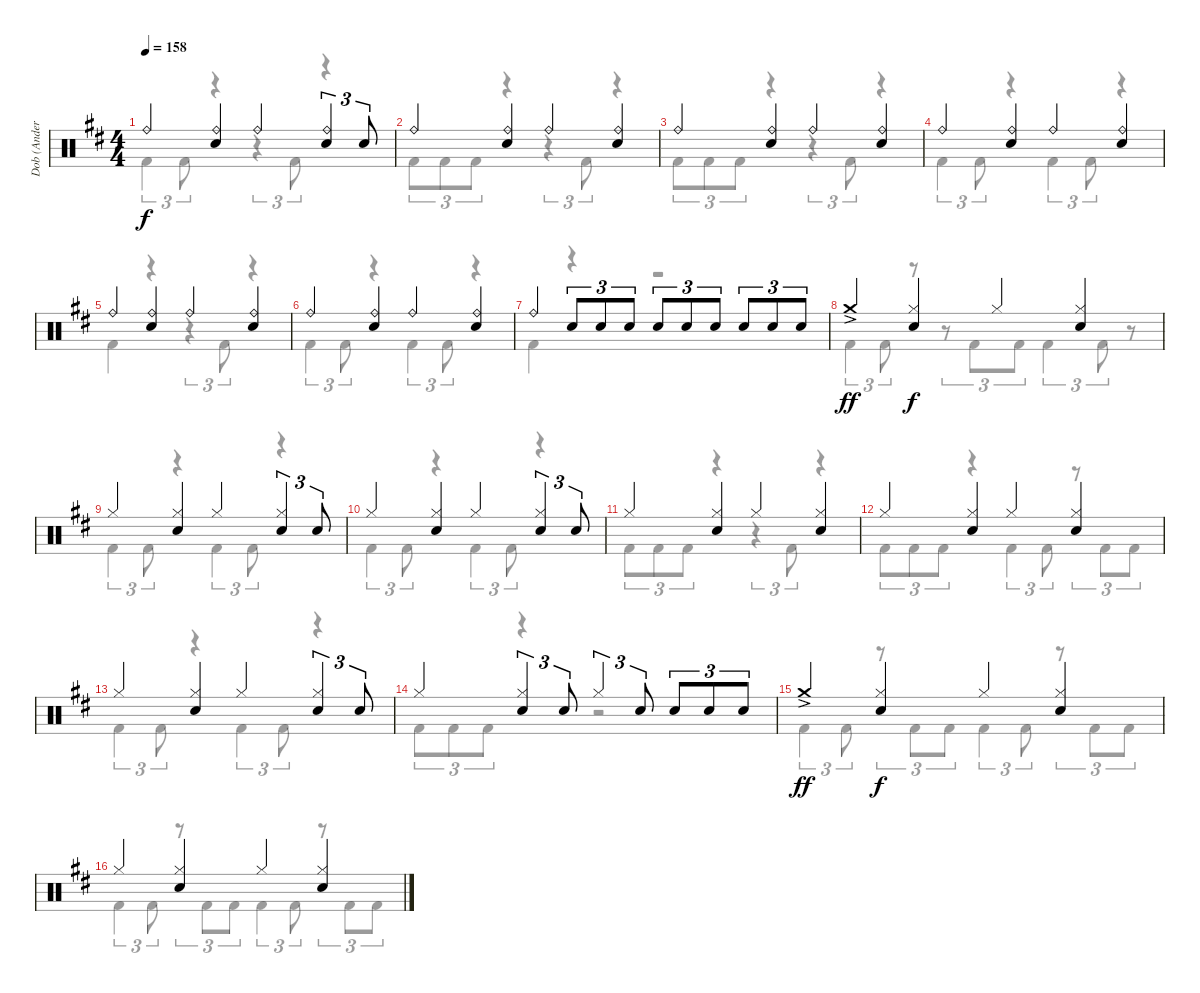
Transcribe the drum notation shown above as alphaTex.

\track ("Dob (Anders Johansson)" "Dob (Ander") {instrument percussion}
\staff {score}
\articulation defaults
\voice
\ts (4 4)
\tempo 158
\clef neutral
\ks d "Ride (bell)".4{dy f}
("Ride (bell)" "Electric Snare (hit)").4 "Ride (bell)".4 ("Ride (bell)" "Electric Snare (hit)").4{tu (3 2)} "Electric Snare (hit)".8{tu (3 2)} |
"Ride (bell)".4 ("Ride (bell)" "Electric Snare (hit)").4 "Ride (bell)".4 ("Ride (bell)" "Electric Snare (hit)").4 |
"Ride (bell)".4 ("Ride (bell)" "Electric Snare (hit)").4 "Ride (bell)".4 ("Ride (bell)" "Electric Snare (hit)").4 |
"Ride (bell)".4 ("Ride (bell)" "Electric Snare (hit)").4 "Ride (bell)".4 ("Ride (bell)" "Electric Snare (hit)").4 |
"Ride (bell)".4 ("Ride (bell)" "Electric Snare (hit)").4 "Ride (bell)".4 ("Ride (bell)" "Electric Snare (hit)").4 |
"Ride (bell)".4 ("Ride (bell)" "Electric Snare (hit)").4 "Ride (bell)".4 ("Ride (bell)" "Electric Snare (hit)").4 |
"Ride (bell)".4 "Electric Snare (hit)".8{tu (3 2)} "Electric Snare (hit)".8{tu (3 2)} "Electric Snare (hit)".8{tu (3 2)} "Electric Snare (hit)".8{tu (3 2)} "Electric Snare (hit)".8{tu (3 2)} "Electric Snare (hit)".8{tu (3 2)} "Electric Snare (hit)".8{tu (3 2)} "Electric Snare (hit)".8{tu (3 2)} "Electric Snare (hit)".8{tu (3 2)} |
"Crash medium (hit)"{ac}.4{dy ff} ("Hi-Hat (closed)" "Electric Snare (hit)").4{dy f} "Hi-Hat (closed)".4 ("Hi-Hat (closed)" "Electric Snare (hit)").4 |
"Hi-Hat (closed)".4 ("Hi-Hat (closed)" "Electric Snare (hit)").4 "Hi-Hat (closed)".4 ("Hi-Hat (closed)" "Electric Snare (hit)").4{tu (3 2)} "Electric Snare (hit)".8{tu (3 2)} |
"Hi-Hat (closed)".4 ("Hi-Hat (closed)" "Electric Snare (hit)").4 "Hi-Hat (closed)".4 ("Hi-Hat (closed)" "Electric Snare (hit)").4{tu (3 2)} "Electric Snare (hit)".8{tu (3 2)} |
"Hi-Hat (closed)".4 ("Hi-Hat (closed)" "Electric Snare (hit)").4 "Hi-Hat (closed)".4 ("Hi-Hat (closed)" "Electric Snare (hit)").4 |
"Hi-Hat (closed)".4 ("Hi-Hat (closed)" "Electric Snare (hit)").4 "Hi-Hat (closed)".4 ("Hi-Hat (closed)" "Electric Snare (hit)").4 |
"Hi-Hat (closed)".4 ("Hi-Hat (closed)" "Electric Snare (hit)").4 "Hi-Hat (closed)".4 ("Hi-Hat (closed)" "Electric Snare (hit)").4{tu (3 2)} "Electric Snare (hit)".8{tu (3 2)} |
"Hi-Hat (closed)".4 ("Hi-Hat (closed)" "Electric Snare (hit)").4{tu (3 2)} "Electric Snare (hit)".8{tu (3 2)} "Hi-Hat (closed)".4{tu (3 2)} "Electric Snare (hit)".8{tu (3 2)} "Electric Snare (hit)".8{tu (3 2)} "Electric Snare (hit)".8{tu (3 2)} "Electric Snare (hit)".8{tu (3 2)} |
"Crash medium (hit)"{ac}.4{dy ff} ("Hi-Hat (closed)" "Electric Snare (hit)").4{dy f} "Hi-Hat (closed)".4 ("Hi-Hat (closed)" "Electric Snare (hit)").4 |
"Hi-Hat (closed)".4 ("Hi-Hat (closed)" "Electric Snare (hit)").4 "Hi-Hat (closed)".4 ("Hi-Hat (closed)" "Electric Snare (hit)").4
\voice
\clef neutral
\ottava regular
\simile none
\ks d "Kick (hit) 2".4{tu (3 2) dy f} "Kick (hit) 2".8{tu (3 2)}
r.4 r.4{tu (3 2)} "Kick (hit) 2".8{tu (3 2)} r.4 |
"Kick (hit) 2".8{tu (3 2)} "Kick (hit) 2".8{tu (3 2)} "Kick (hit) 2".8{tu (3 2)} r.4 r.4{tu (3 2)} "Kick (hit) 2".8{tu (3 2)} r.4 |
"Kick (hit) 2".8{tu (3 2)} "Kick (hit) 2".8{tu (3 2)} "Kick (hit) 2".8{tu (3 2)} r.4 r.4{tu (3 2)} "Kick (hit) 2".8{tu (3 2)} r.4 |
"Kick (hit) 2".4{tu (3 2)} "Kick (hit) 2".8{tu (3 2)} r.4 "Kick (hit) 2".4{tu (3 2)} "Kick (hit) 2".8{tu (3 2)} r.4 |
"Kick (hit) 2".4 r.4 r.4{tu (3 2)} "Kick (hit) 2".8{tu (3 2)} r.4 |
"Kick (hit) 2".4{tu (3 2)} "Kick (hit) 2".8{tu (3 2)} r.4 "Kick (hit) 2".4{tu (3 2)} "Kick (hit) 2".8{tu (3 2)} r.4 |
"Kick (hit) 2".4 r.4 r.2 |
"Kick (hit) 2".4{tu (3 2)} "Kick (hit) 2".8{tu (3 2)} r.8 r.8{tu (3 2)} "Kick (hit) 2".8{tu (3 2)} "Kick (hit) 2".8{tu (3 2)} "Kick (hit) 2".4{tu (3 2)} "Kick (hit) 2".8{tu (3 2)} r.8 |
"Kick (hit) 2".4{tu (3 2)} "Kick (hit) 2".8{tu (3 2)} r.4 "Kick (hit) 2".4{tu (3 2)} "Kick (hit) 2".8{tu (3 2)} r.4 |
"Kick (hit) 2".4{tu (3 2)} "Kick (hit) 2".8{tu (3 2)} r.4 "Kick (hit) 2".4{tu (3 2)} "Kick (hit) 2".8{tu (3 2)} r.4 |
"Kick (hit) 2".8{tu (3 2)} "Kick (hit) 2".8{tu (3 2)} "Kick (hit) 2".8{tu (3 2)} r.4 r.4{tu (3 2)} "Kick (hit) 2".8{tu (3 2)} r.4 |
"Kick (hit) 2".8{tu (3 2)} "Kick (hit) 2".8{tu (3 2)} "Kick (hit) 2".8{tu (3 2)} r.4 "Kick (hit) 2".4{tu (3 2)} "Kick (hit) 2".8{tu (3 2)} r.8{tu (3 2)} "Kick (hit) 2".8{tu (3 2)} "Kick (hit) 2".8{tu (3 2)} |
"Kick (hit) 2".4{tu (3 2)} "Kick (hit) 2".8{tu (3 2)} r.4 "Kick (hit) 2".4{tu (3 2)} "Kick (hit) 2".8{tu (3 2)} r.4 |
"Kick (hit) 2".8{tu (3 2)} "Kick (hit) 2".8{tu (3 2)} "Kick (hit) 2".8{tu (3 2)} r.4 r.2 |
"Kick (hit) 2".4{tu (3 2)} "Kick (hit) 2".8{tu (3 2)} r.8{tu (3 2)} "Kick (hit) 2".8{tu (3 2)} "Kick (hit) 2".8{tu (3 2)} "Kick (hit) 2".4{tu (3 2)} "Kick (hit) 2".8{tu (3 2)} r.8{tu (3 2)} "Kick (hit) 2".8{tu (3 2)} "Kick (hit) 2".8{tu (3 2)} |
"Kick (hit) 2".4{tu (3 2)} "Kick (hit) 2".8{tu (3 2)} r.8{tu (3 2)} "Kick (hit) 2".8{tu (3 2)} "Kick (hit) 2".8{tu (3 2)} "Kick (hit) 2".4{tu (3 2)} "Kick (hit) 2".8{tu (3 2)} r.8{tu (3 2)} "Kick (hit) 2".8{tu (3 2)} "Kick (hit) 2".8{tu (3 2)}
